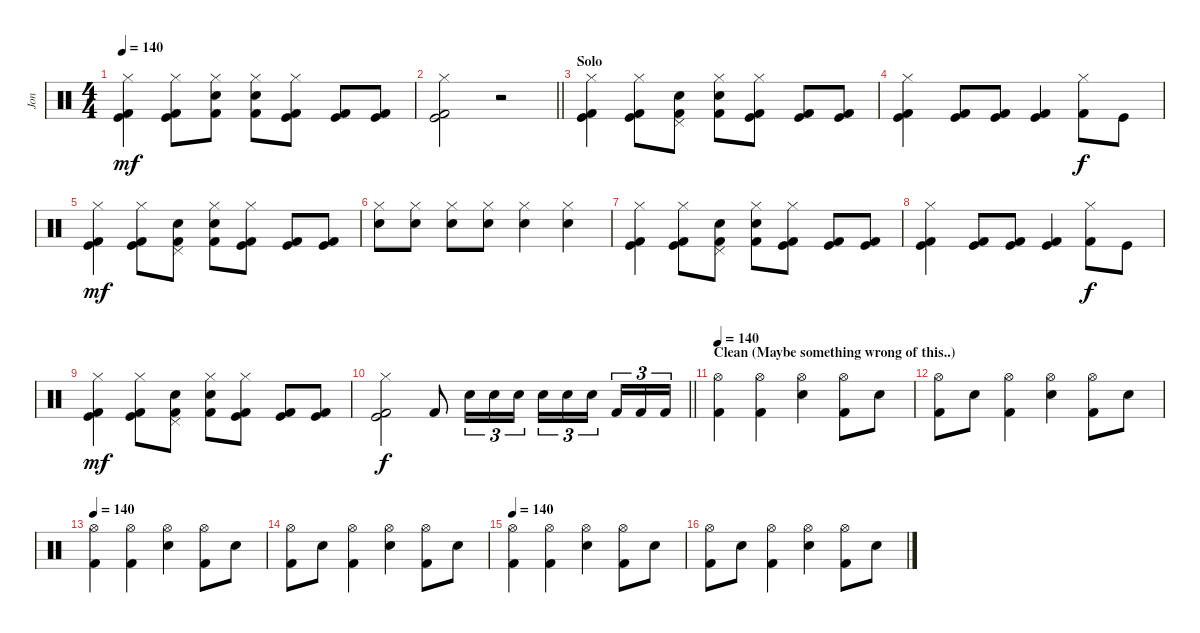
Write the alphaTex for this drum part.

\track ("Jon" "Jon") {instrument percussion}
\staff {score}
\articulation defaults
\ts (4 4)
\tempo 140
\clef neutral
\ks c
("Kick (hit)" "Kick (hit) 2" "Hi-Hat (closed)").4{dy mf} ("Kick (hit)" "Kick (hit) 2" "Hi-Hat (closed)").8 ("Snare (hit) 2" "Kick (hit) 2" "Hi-Hat (closed)").8 ("Electric Snare (hit)" "Kick (hit) 2" "Hi-Hat (closed)").8 ("Kick (hit)" "Kick (hit) 2" "Hi-Hat (closed)").8 ("Kick (hit)" "Kick (hit) 2").8 ("Kick (hit)" "Kick (hit) 2").8 |
\barLineRight lightlight
("Kick (hit)" "Kick (hit) 2" "Hi-Hat (closed)").2 r.2 |
\section ("" "Solo")
("Kick (hit)" "Kick (hit) 2" "Hi-Hat (closed)").4 ("Kick (hit)" "Kick (hit) 2" "Hi-Hat (closed)").8 ("Snare (hit) 2" "Kick (hit) 2" "Pedal Hi-Hat (hit)").8 ("Electric Snare (hit)" "Kick (hit) 2" "Hi-Hat (closed)").8 ("Kick (hit)" "Kick (hit) 2" "Hi-Hat (closed)").8 ("Kick (hit)" "Kick (hit) 2").8 ("Kick (hit)" "Kick (hit) 2").8 |
("Kick (hit)" "Kick (hit) 2" "Hi-Hat (closed)").4 ("Kick (hit)" "Kick (hit) 2").8 ("Kick (hit)" "Kick (hit) 2").8 ("Kick (hit)" "Kick (hit) 2").4 ("Kick (hit) 2" "Hi-Hat (closed)").8{dy f} "Kick (hit)".8 |
("Kick (hit)" "Kick (hit) 2" "Hi-Hat (closed)").4{dy mf} ("Kick (hit)" "Kick (hit) 2" "Hi-Hat (closed)").8 ("Snare (hit) 2" "Kick (hit) 2" "Pedal Hi-Hat (hit)").8 ("Electric Snare (hit)" "Kick (hit) 2" "Hi-Hat (closed)").8 ("Kick (hit)" "Kick (hit) 2" "Hi-Hat (closed)").8 ("Kick (hit)" "Kick (hit) 2").8 ("Kick (hit)" "Kick (hit) 2").8 |
("Electric Snare (hit)" "Hi-Hat (closed)").8 ("Electric Snare (hit)" "Hi-Hat (closed)").8 ("Electric Snare (hit)" "Hi-Hat (closed)").8 ("Electric Snare (hit)" "Hi-Hat (closed)").8 ("Electric Snare (hit)" "Hi-Hat (closed)").4 ("Electric Snare (hit)" "Hi-Hat (closed)").4 |
("Kick (hit)" "Kick (hit) 2" "Hi-Hat (closed)").4 ("Kick (hit)" "Kick (hit) 2" "Hi-Hat (closed)").8 ("Snare (hit) 2" "Kick (hit) 2" "Pedal Hi-Hat (hit)").8 ("Electric Snare (hit)" "Kick (hit) 2" "Hi-Hat (closed)").8 ("Kick (hit)" "Kick (hit) 2" "Hi-Hat (closed)").8 ("Kick (hit)" "Kick (hit) 2").8 ("Kick (hit)" "Kick (hit) 2").8 |
("Kick (hit)" "Kick (hit) 2" "Hi-Hat (closed)").4 ("Kick (hit)" "Kick (hit) 2").8 ("Kick (hit)" "Kick (hit) 2").8 ("Kick (hit)" "Kick (hit) 2").4 ("Kick (hit) 2" "Hi-Hat (closed)").8{dy f} "Kick (hit)".8 |
("Kick (hit)" "Kick (hit) 2" "Hi-Hat (closed)").4{dy mf} ("Kick (hit)" "Kick (hit) 2" "Hi-Hat (closed)").8 ("Snare (hit) 2" "Kick (hit) 2" "Pedal Hi-Hat (hit)").8 ("Electric Snare (hit)" "Kick (hit) 2" "Hi-Hat (closed)").8 ("Kick (hit)" "Kick (hit) 2" "Hi-Hat (closed)").8 ("Kick (hit)" "Kick (hit) 2").8 ("Kick (hit)" "Kick (hit) 2").8 |
\barLineRight lightlight
("Kick (hit)" "Kick (hit) 2" "Hi-Hat (closed)").2{dy f} "Kick (hit) 2".8 "Electric Snare (hit)".16{tu (3 2)} "Electric Snare (hit)".16{tu (3 2)} "Electric Snare (hit)".16{tu (3 2)} "Snare (hit) 2".16{tu (3 2)} "Snare (hit) 2".16{tu (3 2)} "Snare (hit) 2".16{tu (3 2)} "Kick (hit) 2".16{tu (3 2)} "Kick (hit) 2".16{tu (3 2)} "Kick (hit) 2".16{tu (3 2)} |
\section ("" "Clean (Maybe something wrong of this..)")
\tempo 140
("Hi-Hat (open)" "Kick (hit) 2").4 ("Hi-Hat (open)" "Kick (hit) 2").4 ("Hi-Hat (open)" "Electric Snare (hit)").4 ("Hi-Hat (open)" "Kick (hit) 2").8 "Electric Snare (hit)".8 |
("Hi-Hat (open)" "Kick (hit) 2").8 "Electric Snare (hit)".8 ("Hi-Hat (open)" "Kick (hit) 2").4 ("Hi-Hat (open)" "Electric Snare (hit)").4 ("Hi-Hat (open)" "Kick (hit) 2").8 "Electric Snare (hit)".8 |
\tempo 140
("Hi-Hat (open)" "Kick (hit) 2").4 ("Hi-Hat (open)" "Kick (hit) 2").4 ("Hi-Hat (open)" "Electric Snare (hit)").4 ("Hi-Hat (open)" "Kick (hit) 2").8 "Electric Snare (hit)".8 |
("Hi-Hat (open)" "Kick (hit) 2").8 "Electric Snare (hit)".8 ("Hi-Hat (open)" "Kick (hit) 2").4 ("Hi-Hat (open)" "Electric Snare (hit)").4 ("Hi-Hat (open)" "Kick (hit) 2").8 "Electric Snare (hit)".8 |
\tempo 100
\tempo 140
("Hi-Hat (open)" "Kick (hit) 2").4 ("Hi-Hat (open)" "Kick (hit) 2").4 ("Hi-Hat (open)" "Electric Snare (hit)").4 ("Hi-Hat (open)" "Kick (hit) 2").8 "Electric Snare (hit)".8 |
("Hi-Hat (open)" "Kick (hit) 2").8 "Electric Snare (hit)".8 ("Hi-Hat (open)" "Kick (hit) 2").4 ("Hi-Hat (open)" "Electric Snare (hit)").4 ("Hi-Hat (open)" "Kick (hit) 2").8 "Electric Snare (hit)".8
